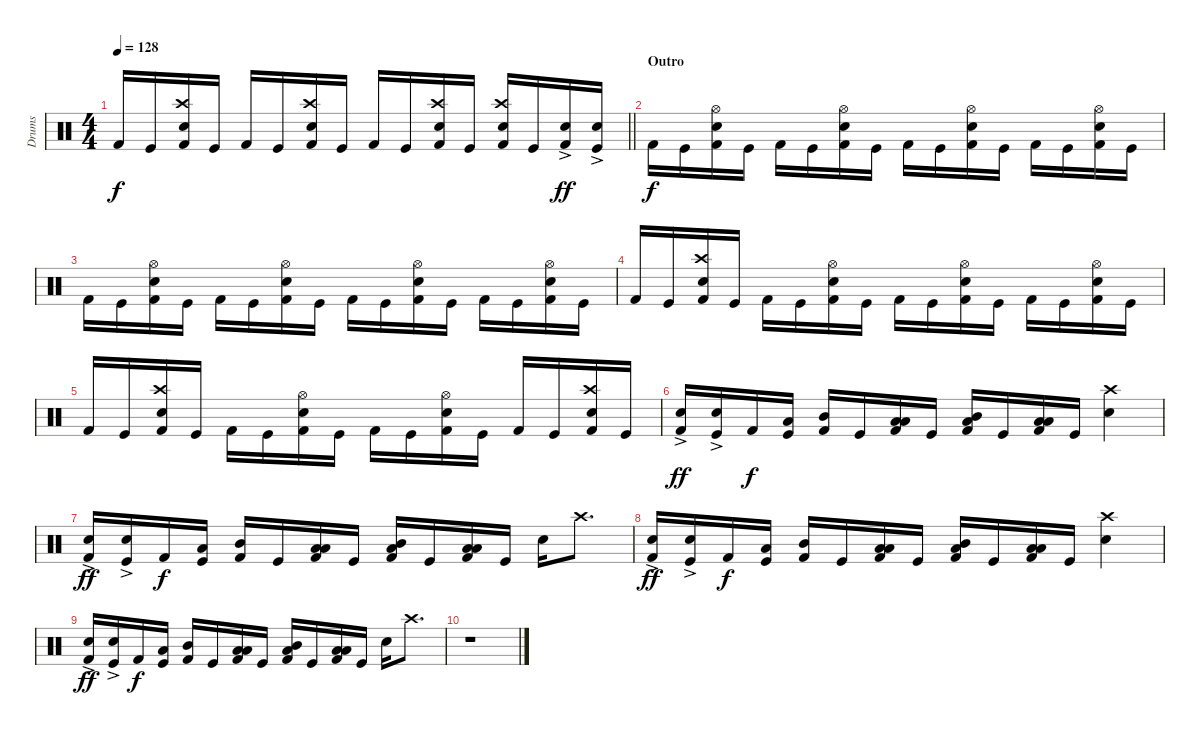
\track ("Drums" "Drums") {instrument percussion}
\staff {score}
\articulation defaults
\ts (4 4)
\tempo 128
\clef neutral
\barLineRight lightlight
\ks c "Kick (hit) 2".16{dy f} "Kick (hit)".16
("Crash high (hit)" "Electric Snare (hit)" "Kick (hit) 2").16 "Kick (hit)".16 "Kick (hit) 2".16 "Kick (hit)".16 ("Crash high (hit)" "Electric Snare (hit)" "Kick (hit) 2").16 "Kick (hit)".16 "Kick (hit) 2".16 "Kick (hit)".16 ("Crash high (hit)" "Electric Snare (hit)" "Kick (hit) 2").16 "Kick (hit)".16 ("Crash high (hit)" "Electric Snare (hit)" "Kick (hit) 2").16 "Kick (hit)".16 ("Electric Snare (hit)"{ac} "Kick (hit) 2").16{dy ff} ("Electric Snare (hit)"{ac} "Kick (hit)").16 |
\section ("" "Outro")
"Kick (hit) 2".16{dy f} "Kick (hit)".16 ("Hi-Hat (open)" "Electric Snare (hit)" "Kick (hit) 2").16 "Kick (hit)".16 "Kick (hit) 2".16 "Kick (hit)".16 ("Hi-Hat (open)" "Electric Snare (hit)" "Kick (hit) 2").16 "Kick (hit)".16 "Kick (hit) 2".16 "Kick (hit)".16 ("Hi-Hat (open)" "Electric Snare (hit)" "Kick (hit) 2").16 "Kick (hit)".16 "Kick (hit) 2".16 "Kick (hit)".16 ("Hi-Hat (open)" "Electric Snare (hit)" "Kick (hit) 2").16 "Kick (hit)".16 |
"Kick (hit) 2".16 "Kick (hit)".16 ("Hi-Hat (open)" "Electric Snare (hit)" "Kick (hit) 2").16 "Kick (hit)".16 "Kick (hit) 2".16 "Kick (hit)".16 ("Hi-Hat (open)" "Electric Snare (hit)" "Kick (hit) 2").16 "Kick (hit)".16 "Kick (hit) 2".16 "Kick (hit)".16 ("Hi-Hat (open)" "Electric Snare (hit)" "Kick (hit) 2").16 "Kick (hit)".16 "Kick (hit) 2".16 "Kick (hit)".16 ("Hi-Hat (open)" "Electric Snare (hit)" "Kick (hit) 2").16 "Kick (hit)".16 |
"Kick (hit) 2".16 "Kick (hit)".16 ("Crash high (hit)" "Electric Snare (hit)" "Kick (hit) 2").16 "Kick (hit)".16 "Kick (hit) 2".16 "Kick (hit)".16 ("Hi-Hat (open)" "Electric Snare (hit)" "Kick (hit) 2").16 "Kick (hit)".16 "Kick (hit) 2".16 "Kick (hit)".16 ("Hi-Hat (open)" "Electric Snare (hit)" "Kick (hit) 2").16 "Kick (hit)".16 "Kick (hit) 2".16 "Kick (hit)".16 ("Hi-Hat (open)" "Electric Snare (hit)" "Kick (hit) 2").16 "Kick (hit)".16 |
"Kick (hit) 2".16 "Kick (hit)".16 ("Crash high (hit)" "Electric Snare (hit)" "Kick (hit) 2").16 "Kick (hit)".16 "Kick (hit) 2".16 "Kick (hit)".16 ("Hi-Hat (open)" "Electric Snare (hit)" "Kick (hit) 2").16 "Kick (hit)".16 "Kick (hit) 2".16 "Kick (hit)".16 ("Hi-Hat (open)" "Electric Snare (hit)" "Kick (hit) 2").16 "Kick (hit)".16 "Kick (hit) 2".16 "Kick (hit)".16 ("Crash high (hit)" "Electric Snare (hit)" "Kick (hit) 2").16 "Kick (hit)".16 |
("Electric Snare (hit)"{ac} "Kick (hit) 2").16{dy ff} ("Electric Snare (hit)"{ac} "Kick (hit)").16 "Kick (hit) 2".16{dy f} ("Low Floor Tom (hit)" "Kick (hit)").16 ("Mid Tom (hit)" "Kick (hit) 2").16 "Kick (hit)".16 ("Low Tom (hit)" "Low Floor Tom (hit)" "Kick (hit) 2").16 "Kick (hit)".16 ("Mid Tom (hit)" "Low Tom (hit)" "Kick (hit) 2").16 "Kick (hit)".16 ("Low Tom (hit)" "Low Floor Tom (hit)" "Kick (hit) 2").16 "Kick (hit)".16 ("Crash high (hit)" "Electric Snare (hit)").4 |
("Electric Snare (hit)"{ac} "Kick (hit) 2").16{dy ff} ("Electric Snare (hit)"{ac} "Kick (hit)").16 "Kick (hit) 2".16{dy f} ("Low Floor Tom (hit)" "Kick (hit)").16 ("Mid Tom (hit)" "Kick (hit) 2").16 "Kick (hit)".16 ("Low Tom (hit)" "Low Floor Tom (hit)" "Kick (hit) 2").16 "Kick (hit)".16 ("Mid Tom (hit)" "Low Tom (hit)" "Kick (hit) 2").16 "Kick (hit)".16 ("Low Tom (hit)" "Low Floor Tom (hit)" "Kick (hit) 2").16 "Kick (hit)".16 "Electric Snare (hit)".16 "Crash high (hit)".8{d} |
("Electric Snare (hit)"{ac} "Kick (hit) 2").16{dy ff} ("Electric Snare (hit)"{ac} "Kick (hit)").16 "Kick (hit) 2".16{dy f} ("Low Floor Tom (hit)" "Kick (hit)").16 ("Mid Tom (hit)" "Kick (hit) 2").16 "Kick (hit)".16 ("Low Tom (hit)" "Low Floor Tom (hit)" "Kick (hit) 2").16 "Kick (hit)".16 ("Mid Tom (hit)" "Low Tom (hit)" "Kick (hit) 2").16 "Kick (hit)".16 ("Low Tom (hit)" "Low Floor Tom (hit)" "Kick (hit) 2").16 "Kick (hit)".16 ("Crash high (hit)" "Electric Snare (hit)").4 |
("Electric Snare (hit)"{ac} "Kick (hit) 2").16{dy ff} ("Electric Snare (hit)"{ac} "Kick (hit)").16 "Kick (hit) 2".16{dy f} ("Low Floor Tom (hit)" "Kick (hit)").16 ("Mid Tom (hit)" "Kick (hit) 2").16 "Kick (hit)".16 ("Low Tom (hit)" "Low Floor Tom (hit)" "Kick (hit) 2").16 "Kick (hit)".16 ("Mid Tom (hit)" "Low Tom (hit)" "Kick (hit) 2").16 "Kick (hit)".16 ("Low Tom (hit)" "Low Floor Tom (hit)" "Kick (hit) 2").16 "Kick (hit)".16 "Electric Snare (hit)".16 "Crash high (hit)".8{d} |
r.1
